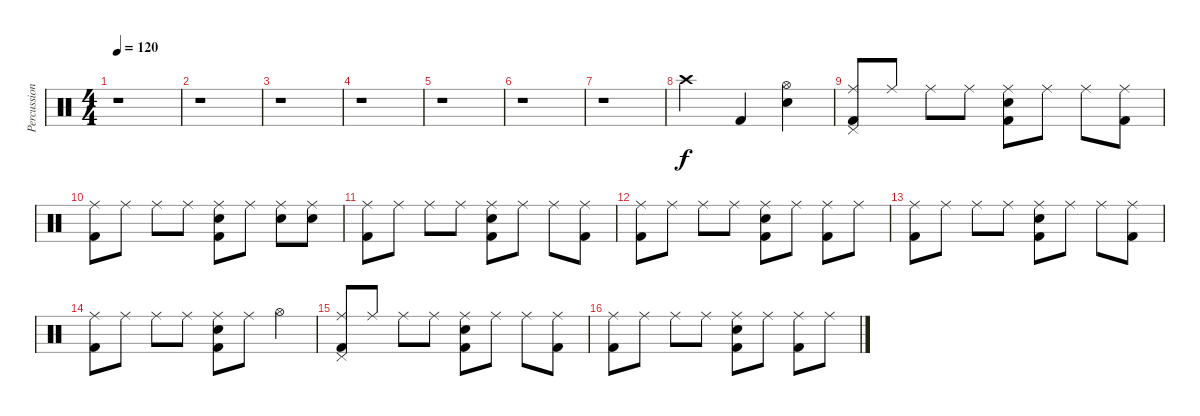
\track ("Percussion" "Percussion") {instrument percussion}
\staff {score}
\articulation defaults
\ts (4 4)
\tempo 120
\clef neutral
\ks c
r.1{dy f} |
r.1 |
r.1 |
r.1 |
r.1 |
r.1 |
r.1 |
"Crash high (hit)".2 "Kick (hit) 2".4 ("Hi-Hat (open)" "Snare (hit) 2").4 |
("Ride (middle)" "Pedal Hi-Hat (hit)" "Kick (hit) 2").8 "Ride (middle)".8 "Ride (middle)".8 "Ride (middle)".8 ("Ride (middle)" "Snare (hit) 2" "Kick (hit) 2").8 "Ride (middle)".8 "Ride (middle)".8 ("Ride (middle)" "Kick (hit) 2").8 |
("Ride (middle)" "Kick (hit) 2").8 "Ride (middle)".8 "Ride (middle)".8 "Ride (middle)".8 ("Ride (middle)" "Snare (hit) 2" "Kick (hit) 2").8 "Ride (middle)".8 ("Ride (middle)" "Snare (hit) 2").8 ("Ride (middle)" "Snare (hit) 2").8 |
("Ride (middle)" "Kick (hit) 2").8 "Ride (middle)".8 "Ride (middle)".8 "Ride (middle)".8 ("Ride (middle)" "Snare (hit) 2" "Kick (hit) 2").8 "Ride (middle)".8 "Ride (middle)".8 ("Ride (middle)" "Kick (hit) 2").8 |
("Ride (middle)" "Kick (hit) 2").8 "Ride (middle)".8 "Ride (middle)".8 "Ride (middle)".8 ("Ride (middle)" "Snare (hit) 2" "Kick (hit) 2").8 "Ride (middle)".8 ("Ride (middle)" "Kick (hit) 2").8 "Ride (middle)".8 |
("Ride (middle)" "Kick (hit) 2").8 "Ride (middle)".8 "Ride (middle)".8 "Ride (middle)".8 ("Ride (middle)" "Snare (hit) 2" "Kick (hit) 2").8 "Ride (middle)".8 "Ride (middle)".8 ("Ride (middle)" "Kick (hit) 2").8 |
("Ride (middle)" "Kick (hit) 2").8 "Ride (middle)".8 "Ride (middle)".8 "Ride (middle)".8 ("Ride (middle)" "Snare (hit) 2" "Kick (hit) 2").8 "Ride (middle)".8 "Hi-Hat (open)".4 |
("Ride (middle)" "Pedal Hi-Hat (hit)" "Kick (hit) 2").8 "Ride (middle)".8 "Ride (middle)".8 "Ride (middle)".8 ("Ride (middle)" "Snare (hit) 2" "Kick (hit) 2").8 "Ride (middle)".8 "Ride (middle)".8 ("Ride (middle)" "Kick (hit) 2").8 |
("Ride (middle)" "Kick (hit) 2").8 "Ride (middle)".8 "Ride (middle)".8 "Ride (middle)".8 ("Ride (middle)" "Snare (hit) 2" "Kick (hit) 2").8 "Ride (middle)".8 ("Ride (middle)" "Kick (hit) 2").8 "Ride (middle)".8
